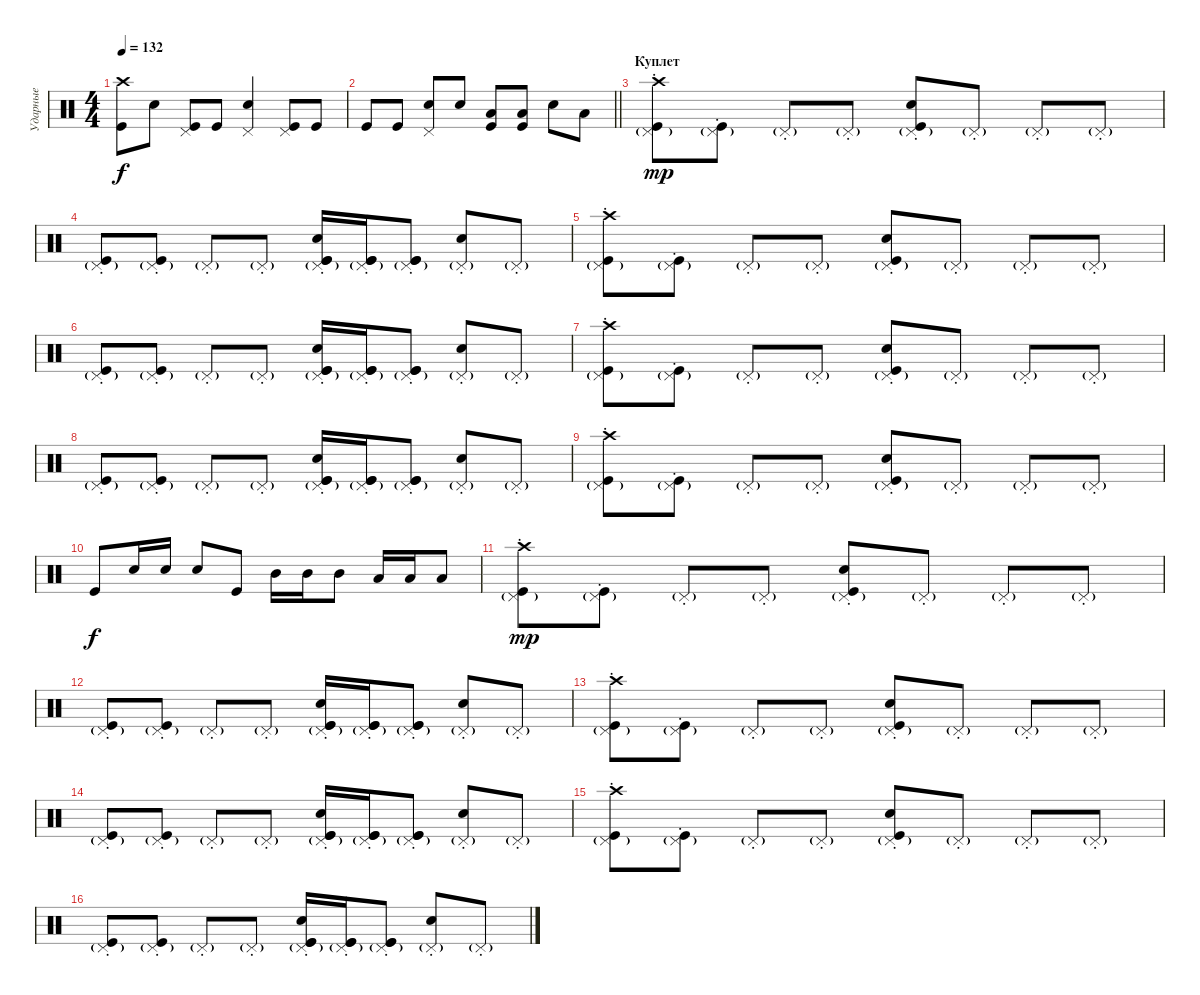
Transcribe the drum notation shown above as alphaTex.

\track ("Ударные" "Ударные") {instrument percussion}
\staff {score}
\articulation defaults
\ts (4 4)
\tempo 132
\clef neutral
\ks c
("Crash high (hit)" "Kick (hit)").8{dy f} "Electric Snare (hit)".8 ("Pedal Hi-Hat (hit)" "Kick (hit)").8 "Kick (hit)".8 ("Pedal Hi-Hat (hit)" "Electric Snare (hit)").4 ("Pedal Hi-Hat (hit)" "Kick (hit)").8 "Kick (hit)".8 |
\barLineRight lightlight "Kick (hit)".8 "Kick (hit)".8
("Pedal Hi-Hat (hit)" "Electric Snare (hit)").8 "Electric Snare (hit)".8 ("Low Tom (hit)" "Kick (hit)").8 ("Low Tom (hit)" "Kick (hit)").8 "Electric Snare (hit)".8 "Low Floor Tom (hit)".8 |
\section ("" "Куплет")
("Pedal Hi-Hat (hit)"{g st} "Kick (hit)" "Crash high (hit)").8{dy mp} ("Pedal Hi-Hat (hit)"{g st} "Kick (hit)").8 "Pedal Hi-Hat (hit)"{g st}.8 "Pedal Hi-Hat (hit)"{g st}.8 ("Pedal Hi-Hat (hit)"{g st} "Electric Snare (hit)" "Kick (hit)").8 "Pedal Hi-Hat (hit)"{g st}.8 "Pedal Hi-Hat (hit)"{g st}.8 "Pedal Hi-Hat (hit)"{g st}.8 |
("Pedal Hi-Hat (hit)"{g st} "Kick (hit)").8 ("Pedal Hi-Hat (hit)"{g st} "Kick (hit)").8 "Pedal Hi-Hat (hit)"{g st}.8 "Pedal Hi-Hat (hit)"{g st}.8 ("Pedal Hi-Hat (hit)"{g st} "Electric Snare (hit)" "Kick (hit)" "Kick (hit)").16 ("Pedal Hi-Hat (hit)"{g st} "Kick (hit)" "Kick (hit)").16 ("Pedal Hi-Hat (hit)"{g st} "Kick (hit)" "Kick (hit)").8 ("Pedal Hi-Hat (hit)"{g st} "Electric Snare (hit)").8 "Pedal Hi-Hat (hit)"{g st}.8 |
("Pedal Hi-Hat (hit)"{g st} "Kick (hit)" "Crash high (hit)").8 ("Pedal Hi-Hat (hit)"{g st} "Kick (hit)").8 "Pedal Hi-Hat (hit)"{g st}.8 "Pedal Hi-Hat (hit)"{g st}.8 ("Pedal Hi-Hat (hit)"{g st} "Electric Snare (hit)" "Kick (hit)").8 "Pedal Hi-Hat (hit)"{g st}.8 "Pedal Hi-Hat (hit)"{g st}.8 "Pedal Hi-Hat (hit)"{g st}.8 |
("Pedal Hi-Hat (hit)"{g st} "Kick (hit)").8 ("Pedal Hi-Hat (hit)"{g st} "Kick (hit)").8 "Pedal Hi-Hat (hit)"{g st}.8 "Pedal Hi-Hat (hit)"{g st}.8 ("Pedal Hi-Hat (hit)"{g st} "Electric Snare (hit)" "Kick (hit)" "Kick (hit)").16 ("Pedal Hi-Hat (hit)"{g st} "Kick (hit)" "Kick (hit)").16 ("Pedal Hi-Hat (hit)"{g st} "Kick (hit)" "Kick (hit)").8 ("Pedal Hi-Hat (hit)"{g st} "Electric Snare (hit)").8 "Pedal Hi-Hat (hit)"{g st}.8 |
("Pedal Hi-Hat (hit)"{g st} "Kick (hit)" "Crash high (hit)").8 ("Pedal Hi-Hat (hit)"{g st} "Kick (hit)").8 "Pedal Hi-Hat (hit)"{g st}.8 "Pedal Hi-Hat (hit)"{g st}.8 ("Pedal Hi-Hat (hit)"{g st} "Electric Snare (hit)" "Kick (hit)").8 "Pedal Hi-Hat (hit)"{g st}.8 "Pedal Hi-Hat (hit)"{g st}.8 "Pedal Hi-Hat (hit)"{g st}.8 |
("Pedal Hi-Hat (hit)"{g st} "Kick (hit)").8 ("Pedal Hi-Hat (hit)"{g st} "Kick (hit)").8 "Pedal Hi-Hat (hit)"{g st}.8 "Pedal Hi-Hat (hit)"{g st}.8 ("Pedal Hi-Hat (hit)"{g st} "Electric Snare (hit)" "Kick (hit)" "Kick (hit)").16 ("Pedal Hi-Hat (hit)"{g st} "Kick (hit)" "Kick (hit)").16 ("Pedal Hi-Hat (hit)"{g st} "Kick (hit)" "Kick (hit)").8 ("Pedal Hi-Hat (hit)"{g st} "Electric Snare (hit)").8 "Pedal Hi-Hat (hit)"{g st}.8 |
("Pedal Hi-Hat (hit)"{g st} "Kick (hit)" "Crash high (hit)").8 ("Pedal Hi-Hat (hit)"{g st} "Kick (hit)").8 "Pedal Hi-Hat (hit)"{g st}.8 "Pedal Hi-Hat (hit)"{g st}.8 ("Pedal Hi-Hat (hit)"{g st} "Electric Snare (hit)" "Kick (hit)").8 "Pedal Hi-Hat (hit)"{g st}.8 "Pedal Hi-Hat (hit)"{g st}.8 "Pedal Hi-Hat (hit)"{g st}.8 |
"Kick (hit)".8{dy f} "Electric Snare (hit)".16 "Electric Snare (hit)".16 "Electric Snare (hit)".8 "Kick (hit)".8 "Mid Tom (hit)".16 "Mid Tom (hit)".16 "Mid Tom (hit)".8 "Low Tom (hit)".16 "Low Tom (hit)".16 "Low Tom (hit)".8 |
("Pedal Hi-Hat (hit)"{g st} "Kick (hit)" "Crash high (hit)").8{dy mp} ("Pedal Hi-Hat (hit)"{g st} "Kick (hit)").8 "Pedal Hi-Hat (hit)"{g st}.8 "Pedal Hi-Hat (hit)"{g st}.8 ("Pedal Hi-Hat (hit)"{g st} "Electric Snare (hit)" "Kick (hit)").8 "Pedal Hi-Hat (hit)"{g st}.8 "Pedal Hi-Hat (hit)"{g st}.8 "Pedal Hi-Hat (hit)"{g st}.8 |
("Pedal Hi-Hat (hit)"{g st} "Kick (hit)").8 ("Pedal Hi-Hat (hit)"{g st} "Kick (hit)").8 "Pedal Hi-Hat (hit)"{g st}.8 "Pedal Hi-Hat (hit)"{g st}.8 ("Pedal Hi-Hat (hit)"{g st} "Electric Snare (hit)" "Kick (hit)" "Kick (hit)").16 ("Pedal Hi-Hat (hit)"{g st} "Kick (hit)" "Kick (hit)").16 ("Pedal Hi-Hat (hit)"{g st} "Kick (hit)" "Kick (hit)").8 ("Pedal Hi-Hat (hit)"{g st} "Electric Snare (hit)").8 "Pedal Hi-Hat (hit)"{g st}.8 |
("Pedal Hi-Hat (hit)"{g st} "Kick (hit)" "Crash high (hit)").8 ("Pedal Hi-Hat (hit)"{g st} "Kick (hit)").8 "Pedal Hi-Hat (hit)"{g st}.8 "Pedal Hi-Hat (hit)"{g st}.8 ("Pedal Hi-Hat (hit)"{g st} "Electric Snare (hit)" "Kick (hit)").8 "Pedal Hi-Hat (hit)"{g st}.8 "Pedal Hi-Hat (hit)"{g st}.8 "Pedal Hi-Hat (hit)"{g st}.8 |
("Pedal Hi-Hat (hit)"{g st} "Kick (hit)").8 ("Pedal Hi-Hat (hit)"{g st} "Kick (hit)").8 "Pedal Hi-Hat (hit)"{g st}.8 "Pedal Hi-Hat (hit)"{g st}.8 ("Pedal Hi-Hat (hit)"{g st} "Electric Snare (hit)" "Kick (hit)" "Kick (hit)").16 ("Pedal Hi-Hat (hit)"{g st} "Kick (hit)" "Kick (hit)").16 ("Pedal Hi-Hat (hit)"{g st} "Kick (hit)" "Kick (hit)").8 ("Pedal Hi-Hat (hit)"{g st} "Electric Snare (hit)").8 "Pedal Hi-Hat (hit)"{g st}.8 |
("Pedal Hi-Hat (hit)"{g st} "Kick (hit)" "Crash high (hit)").8 ("Pedal Hi-Hat (hit)"{g st} "Kick (hit)").8 "Pedal Hi-Hat (hit)"{g st}.8 "Pedal Hi-Hat (hit)"{g st}.8 ("Pedal Hi-Hat (hit)"{g st} "Electric Snare (hit)" "Kick (hit)").8 "Pedal Hi-Hat (hit)"{g st}.8 "Pedal Hi-Hat (hit)"{g st}.8 "Pedal Hi-Hat (hit)"{g st}.8 |
("Pedal Hi-Hat (hit)"{g st} "Kick (hit)").8 ("Pedal Hi-Hat (hit)"{g st} "Kick (hit)").8 "Pedal Hi-Hat (hit)"{g st}.8 "Pedal Hi-Hat (hit)"{g st}.8 ("Pedal Hi-Hat (hit)"{g st} "Electric Snare (hit)" "Kick (hit)" "Kick (hit)").16 ("Pedal Hi-Hat (hit)"{g st} "Kick (hit)" "Kick (hit)").16 ("Pedal Hi-Hat (hit)"{g st} "Kick (hit)" "Kick (hit)").8 ("Pedal Hi-Hat (hit)"{g st} "Electric Snare (hit)").8 "Pedal Hi-Hat (hit)"{g st}.8
